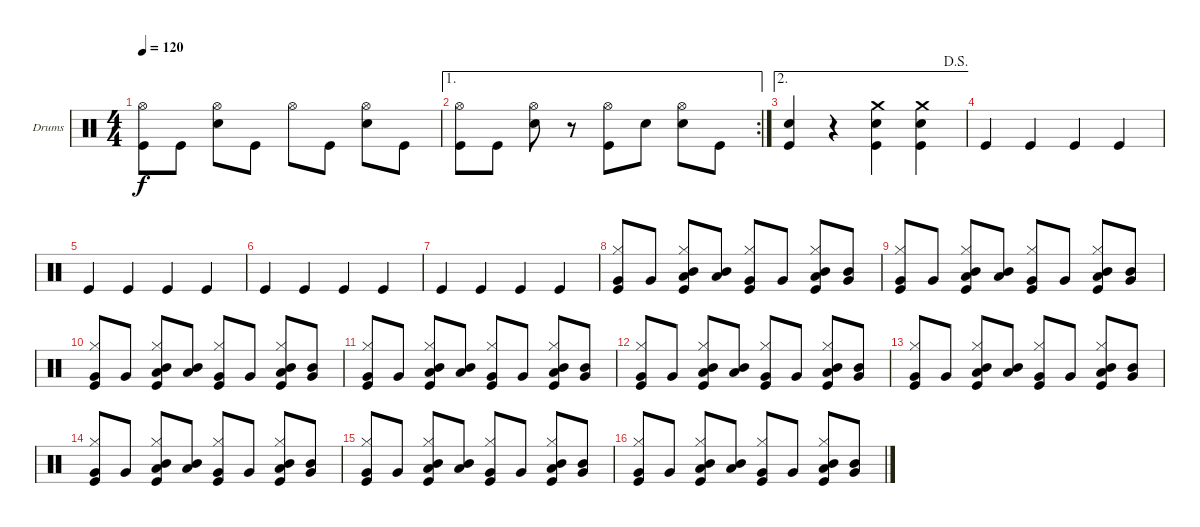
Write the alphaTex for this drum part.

\bracketExtendMode groupsimilarinstruments
\firstSystemTrackNameOrientation horizontal
\otherSystemsTrackNameOrientation horizontal
\track ("Drumkit" "Drums") {instrument percussion}
\staff {score}
\articulation defaults
\ts (4 4)
\tempo 120
\clef neutral
\ks c
("Hi-Hat (open)" "Kick (hit)").8{dy f} "Kick (hit)".8 ("Hi-Hat (open)" "Snare (hit) 2").8 "Kick (hit)".8 "Hi-Hat (open)".8 "Kick (hit)".8 ("Hi-Hat (open)" "Snare (hit) 2").8 "Kick (hit)".8 |
\ae 1
\rc 2
("Hi-Hat (open)" "Kick (hit)").8 "Kick (hit)".8 ("Hi-Hat (open)" "Snare (hit) 2").8 r.8 ("Hi-Hat (open)" "Kick (hit)").8 "Snare (hit) 2".8 ("Hi-Hat (open)" "Snare (hit) 2").8 "Kick (hit)".8 |
\ae 2
\jump dalsegno
("Snare (hit) 2" "Kick (hit)").4 r.4 ("Crash medium (hit)" "Snare (hit) 2" "Kick (hit)").4 ("Crash medium (hit)" "Snare (hit) 2" "Kick (hit)").4 |
"Kick (hit)".4 "Kick (hit)".4 "Kick (hit)".4 "Kick (hit)".4 |
"Kick (hit)".4 "Kick (hit)".4 "Kick (hit)".4 "Kick (hit)".4 |
"Kick (hit)".4 "Kick (hit)".4 "Kick (hit)".4 "Kick (hit)".4 |
"Kick (hit)".4 "Kick (hit)".4 "Kick (hit)".4 "Kick (hit)".4 |
("Hi-Hat (closed)" "Kick (hit)" "Very Low Tom (hit)").8 "Very Low Tom (hit)".8 ("Hi-Hat (closed)" "Kick (hit)" "Low Tom (hit)" "Mid Tom (hit)").8 ("Low Tom (hit)" "Mid Tom (hit)").8 ("Hi-Hat (closed)" "Kick (hit)" "Very Low Tom (hit)").8 "Very Low Tom (hit)".8 ("Hi-Hat (closed)" "Kick (hit)" "Mid Tom (hit)" "Low Tom (hit)").8 ("Mid Tom (hit)" "Very Low Tom (hit)").8 |
("Hi-Hat (closed)" "Kick (hit)" "Very Low Tom (hit)").8 "Very Low Tom (hit)".8 ("Hi-Hat (closed)" "Kick (hit)" "Low Tom (hit)" "Mid Tom (hit)").8 ("Low Tom (hit)" "Mid Tom (hit)").8 ("Hi-Hat (closed)" "Kick (hit)" "Very Low Tom (hit)").8 "Very Low Tom (hit)".8 ("Hi-Hat (closed)" "Kick (hit)" "Mid Tom (hit)" "Low Tom (hit)").8 ("Mid Tom (hit)" "Very Low Tom (hit)").8 |
("Hi-Hat (closed)" "Kick (hit)" "Very Low Tom (hit)").8 "Very Low Tom (hit)".8 ("Hi-Hat (closed)" "Kick (hit)" "Low Tom (hit)" "Mid Tom (hit)").8 ("Low Tom (hit)" "Mid Tom (hit)").8 ("Hi-Hat (closed)" "Kick (hit)" "Very Low Tom (hit)").8 "Very Low Tom (hit)".8 ("Hi-Hat (closed)" "Kick (hit)" "Mid Tom (hit)" "Low Tom (hit)").8 ("Mid Tom (hit)" "Very Low Tom (hit)").8 |
("Hi-Hat (closed)" "Kick (hit)" "Very Low Tom (hit)").8 "Very Low Tom (hit)".8 ("Hi-Hat (closed)" "Kick (hit)" "Low Tom (hit)" "Mid Tom (hit)").8 ("Low Tom (hit)" "Mid Tom (hit)").8 ("Hi-Hat (closed)" "Kick (hit)" "Very Low Tom (hit)").8 "Very Low Tom (hit)".8 ("Hi-Hat (closed)" "Kick (hit)" "Mid Tom (hit)" "Low Tom (hit)").8 ("Mid Tom (hit)" "Very Low Tom (hit)").8 |
("Hi-Hat (closed)" "Kick (hit)" "Very Low Tom (hit)").8 "Very Low Tom (hit)".8 ("Hi-Hat (closed)" "Kick (hit)" "Low Tom (hit)" "Mid Tom (hit)").8 ("Low Tom (hit)" "Mid Tom (hit)").8 ("Hi-Hat (closed)" "Kick (hit)" "Very Low Tom (hit)").8 "Very Low Tom (hit)".8 ("Hi-Hat (closed)" "Kick (hit)" "Mid Tom (hit)" "Low Tom (hit)").8 ("Mid Tom (hit)" "Very Low Tom (hit)").8 |
("Hi-Hat (closed)" "Kick (hit)" "Very Low Tom (hit)").8 "Very Low Tom (hit)".8 ("Hi-Hat (closed)" "Kick (hit)" "Low Tom (hit)" "Mid Tom (hit)").8 ("Low Tom (hit)" "Mid Tom (hit)").8 ("Hi-Hat (closed)" "Kick (hit)" "Very Low Tom (hit)").8 "Very Low Tom (hit)".8 ("Hi-Hat (closed)" "Kick (hit)" "Mid Tom (hit)" "Low Tom (hit)").8 ("Mid Tom (hit)" "Very Low Tom (hit)").8 |
("Hi-Hat (closed)" "Kick (hit)" "Very Low Tom (hit)").8 "Very Low Tom (hit)".8 ("Hi-Hat (closed)" "Kick (hit)" "Low Tom (hit)" "Mid Tom (hit)").8 ("Low Tom (hit)" "Mid Tom (hit)").8 ("Hi-Hat (closed)" "Kick (hit)" "Very Low Tom (hit)").8 "Very Low Tom (hit)".8 ("Hi-Hat (closed)" "Kick (hit)" "Mid Tom (hit)" "Low Tom (hit)").8 ("Mid Tom (hit)" "Very Low Tom (hit)").8 |
("Hi-Hat (closed)" "Kick (hit)" "Very Low Tom (hit)").8 "Very Low Tom (hit)".8 ("Hi-Hat (closed)" "Kick (hit)" "Low Tom (hit)" "Mid Tom (hit)").8 ("Low Tom (hit)" "Mid Tom (hit)").8 ("Hi-Hat (closed)" "Kick (hit)" "Very Low Tom (hit)").8 "Very Low Tom (hit)".8 ("Hi-Hat (closed)" "Kick (hit)" "Mid Tom (hit)" "Low Tom (hit)").8 ("Mid Tom (hit)" "Very Low Tom (hit)").8 |
("Hi-Hat (closed)" "Kick (hit)" "Very Low Tom (hit)").8 "Very Low Tom (hit)".8 ("Hi-Hat (closed)" "Kick (hit)" "Low Tom (hit)" "Mid Tom (hit)").8 ("Low Tom (hit)" "Mid Tom (hit)").8 ("Hi-Hat (closed)" "Kick (hit)" "Very Low Tom (hit)").8 "Very Low Tom (hit)".8 ("Hi-Hat (closed)" "Kick (hit)" "Mid Tom (hit)" "Low Tom (hit)").8 ("Mid Tom (hit)" "Very Low Tom (hit)").8
